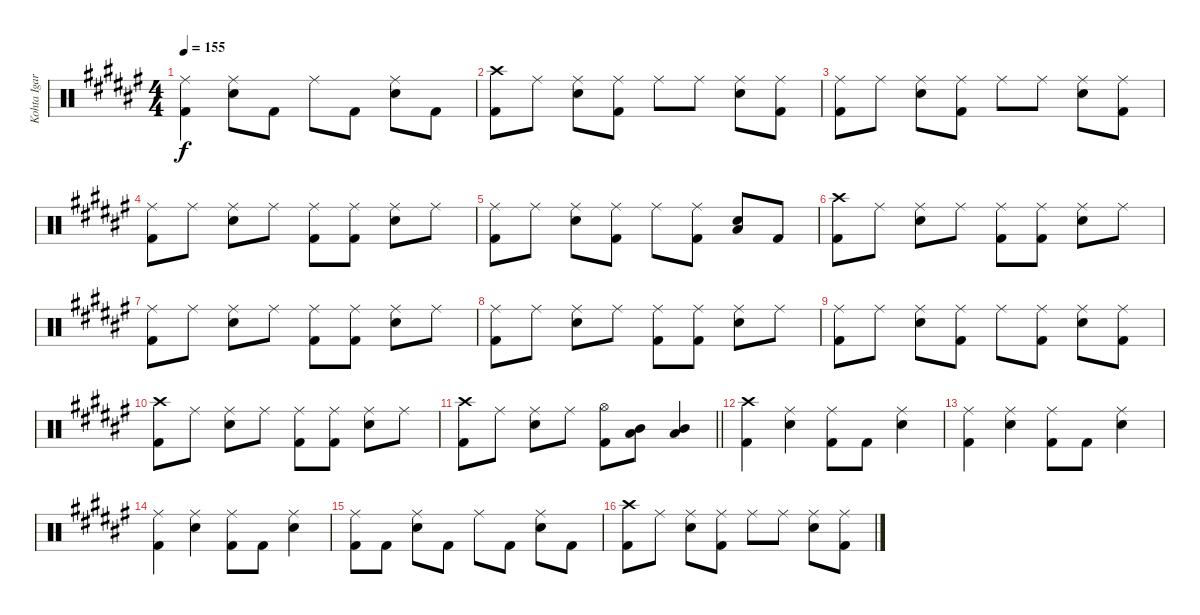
\track ("Kohta Igarashi" "Kohta Igar") {instrument percussion}
\staff {score}
\articulation defaults
\ts (4 4)
\tempo 155
\clef neutral
\ks f#
("Ride (middle)" "Kick (hit) 2").4{dy f} ("Ride (middle)" "Electric Snare (hit)").8 "Kick (hit) 2".8 "Ride (middle)".8 "Kick (hit) 2".8 ("Ride (middle)" "Electric Snare (hit)").8 "Kick (hit) 2".8 |
("Crash high (hit)" "Kick (hit) 2").8 "Ride (middle)".8 ("Ride (middle)" "Electric Snare (hit)").8 ("Ride (middle)" "Kick (hit) 2").8 "Ride (middle)".8 "Ride (middle)".8 ("Ride (middle)" "Electric Snare (hit)").8 ("Ride (middle)" "Kick (hit) 2").8 |
("Ride (middle)" "Kick (hit) 2").8 "Ride (middle)".8 ("Ride (middle)" "Electric Snare (hit)").8 ("Ride (middle)" "Kick (hit) 2").8 "Ride (middle)".8 "Ride (middle)".8 ("Ride (middle)" "Electric Snare (hit)").8 ("Ride (middle)" "Kick (hit) 2").8 |
("Ride (middle)" "Kick (hit) 2").8 "Ride (middle)".8 ("Ride (middle)" "Electric Snare (hit)").8 "Ride (middle)".8 ("Ride (middle)" "Kick (hit) 2").8 ("Ride (middle)" "Kick (hit) 2").8 ("Ride (middle)" "Electric Snare (hit)").8 "Ride (middle)".8 |
("Ride (middle)" "Kick (hit) 2").8 "Ride (middle)".8 ("Ride (middle)" "Electric Snare (hit)").8 ("Ride (middle)" "Kick (hit) 2").8 "Ride (middle)".8 ("Ride (middle)" "Kick (hit) 2").8 ("Low Floor Tom (hit)" "Electric Snare (hit)").8 "Kick (hit) 2".8 |
("Crash high (hit)" "Kick (hit) 2").8 "Ride (middle)".8 ("Ride (middle)" "Electric Snare (hit)").8 "Ride (middle)".8 ("Ride (middle)" "Kick (hit) 2").8 ("Ride (middle)" "Kick (hit) 2").8 ("Ride (middle)" "Electric Snare (hit)").8 "Ride (middle)".8 |
("Ride (middle)" "Kick (hit) 2").8 "Ride (middle)".8 ("Ride (middle)" "Electric Snare (hit)").8 "Ride (middle)".8 ("Ride (middle)" "Kick (hit) 2").8 ("Ride (middle)" "Kick (hit) 2").8 ("Ride (middle)" "Electric Snare (hit)").8 "Ride (middle)".8 |
("Ride (middle)" "Kick (hit) 2").8 "Ride (middle)".8 ("Ride (middle)" "Electric Snare (hit)").8 "Ride (middle)".8 ("Ride (middle)" "Kick (hit) 2").8 ("Ride (middle)" "Kick (hit) 2").8 ("Ride (middle)" "Electric Snare (hit)").8 "Ride (middle)".8 |
("Ride (middle)" "Kick (hit) 2").8 "Ride (middle)".8 ("Ride (middle)" "Electric Snare (hit)").8 ("Ride (middle)" "Kick (hit) 2").8 "Ride (middle)".8 ("Ride (middle)" "Kick (hit) 2").8 ("Ride (middle)" "Electric Snare (hit)").8 ("Ride (middle)" "Kick (hit) 2").8 |
("Crash high (hit)" "Kick (hit) 2").8 "Ride (middle)".8 ("Ride (middle)" "Electric Snare (hit)").8 "Ride (middle)".8 ("Ride (middle)" "Kick (hit) 2").8 ("Ride (middle)" "Kick (hit) 2").8 ("Ride (middle)" "Electric Snare (hit)").8 "Ride (middle)".8 |
\barLineRight lightlight
("Crash high (hit)" "Kick (hit) 2").8 "Ride (middle)".8 ("Ride (middle)" "Electric Snare (hit)").8 "Ride (middle)".8 ("Hi-Hat (open)" "Kick (hit) 2").8 ("Mid Tom (hit)" "Low Floor Tom (hit)").8 ("Mid Tom (hit)" "Low Floor Tom (hit)").4 |
("Crash high (hit)" "Kick (hit) 2").4 ("Ride (middle)" "Electric Snare (hit)").4 ("Ride (middle)" "Kick (hit) 2").8 "Kick (hit) 2".8 ("Ride (middle)" "Electric Snare (hit)").4 |
("Ride (middle)" "Kick (hit) 2").4 ("Ride (middle)" "Electric Snare (hit)").4 ("Ride (middle)" "Kick (hit) 2").8 "Kick (hit) 2".8 ("Ride (middle)" "Electric Snare (hit)").4 |
("Ride (middle)" "Kick (hit) 2").4 ("Ride (middle)" "Electric Snare (hit)").4 ("Ride (middle)" "Kick (hit) 2").8 "Kick (hit) 2".8 ("Ride (middle)" "Electric Snare (hit)").4 |
("Ride (middle)" "Kick (hit) 2").8 "Kick (hit) 2".8 ("Ride (middle)" "Electric Snare (hit)").8 "Kick (hit) 2".8 "Ride (middle)".8 "Kick (hit) 2".8 ("Ride (middle)" "Electric Snare (hit)").8 "Kick (hit) 2".8 |
("Crash high (hit)" "Kick (hit) 2").8 "Ride (middle)".8 ("Ride (middle)" "Electric Snare (hit)").8 ("Ride (middle)" "Kick (hit) 2").8 "Ride (middle)".8 "Ride (middle)".8 ("Ride (middle)" "Electric Snare (hit)").8 ("Ride (middle)" "Kick (hit) 2").8
